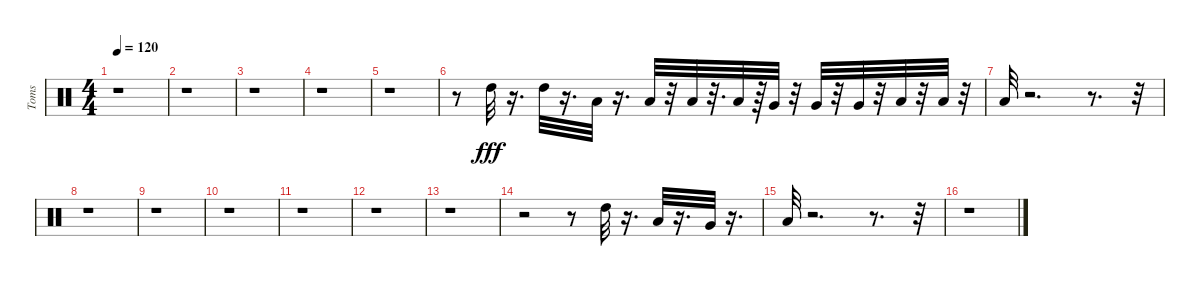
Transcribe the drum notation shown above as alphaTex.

\track ("Toms" "Toms") {instrument percussion}
\staff {score}
\articulation defaults
\ts (4 4)
\tempo 120
\clef neutral
\ks c
r.1{dy fff} |
r.1 |
r.1 |
r.1 |
r.1 |
r.8 "High Tom (hit)".32 r.16{d} "High Tom (hit)".32 r.16{d} "Low Tom (hit)".32 r.16{d} "Low Tom (hit)".32 r.32 "Low Tom (hit)".32 r.32{d} "Low Tom (hit)".32 r.64 "Very Low Tom (hit)".32 r.32 "Very Low Tom (hit)".32 r.32 "Very Low Tom (hit)".32 r.32 "Low Floor Tom (hit)".32 r.32 "Low Floor Tom (hit)".32 r.32 |
"Low Floor Tom (hit)".32 r.2{d} r.8{d} r.32 |
r.1 |
r.1 |
r.1 |
r.1 |
r.1 |
r.1 |
r.2 r.8 "High Tom (hit)".32 r.16{d} "Low Tom (hit)".32 r.16{d} "Very Low Tom (hit)".32 r.16{d} |
"Low Floor Tom (hit)".32 r.2{d} r.8{d} r.32 |
r.1
